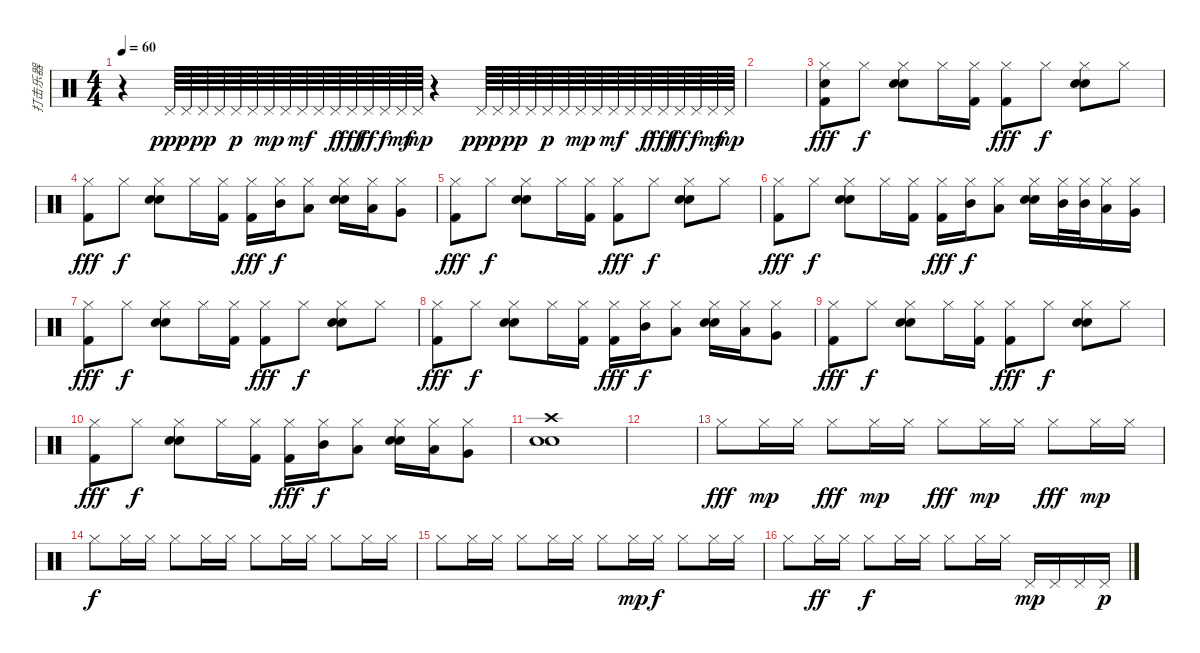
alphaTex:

\track ("打击乐器" "打击乐器") {instrument percussion}
\staff {score}
\articulation defaults
\ts (4 4)
\tempo 60
\clef neutral
\ks c
r.4{dy p} "Pedal Hi-Hat (hit)".64{dy ppp} "Pedal Hi-Hat (hit)".64 "Pedal Hi-Hat (hit)".64{dy pp} "Pedal Hi-Hat (hit)".64 "Pedal Hi-Hat (hit)".64{dy p} "Pedal Hi-Hat (hit)".64 "Pedal Hi-Hat (hit)".64{dy mp} "Pedal Hi-Hat (hit)".64 "Pedal Hi-Hat (hit)".64{dy mf} "Pedal Hi-Hat (hit)".64 "Pedal Hi-Hat (hit)".64{dy f} "Pedal Hi-Hat (hit)".64{dy fff} "Pedal Hi-Hat (hit)".64{dy ff} "Pedal Hi-Hat (hit)".64{dy f} "Pedal Hi-Hat (hit)".64{dy mf} "Pedal Hi-Hat (hit)".64{dy mp} r.4 "Pedal Hi-Hat (hit)".64{dy ppp} "Pedal Hi-Hat (hit)".64 "Pedal Hi-Hat (hit)".64{dy pp} "Pedal Hi-Hat (hit)".64 "Pedal Hi-Hat (hit)".64{dy p} "Pedal Hi-Hat (hit)".64 "Pedal Hi-Hat (hit)".64{dy mp} "Pedal Hi-Hat (hit)".64 "Pedal Hi-Hat (hit)".64{dy mf} "Pedal Hi-Hat (hit)".64 "Pedal Hi-Hat (hit)".64{dy f} "Pedal Hi-Hat (hit)".64{dy fff} "Pedal Hi-Hat (hit)".64{dy ff} "Pedal Hi-Hat (hit)".64{dy f} "Pedal Hi-Hat (hit)".64{dy mf} "Pedal Hi-Hat (hit)".64{dy mp} |
|
("Hi-Hat (closed)" "Kick (hit) 2" "Electric Snare (hit)").8{dy fff} "Hi-Hat (closed)".8{dy f} ("Electric Snare (hit)" "Hand Clap (hit)" "Hi-Hat (closed)").8 "Hi-Hat (closed)".16 ("Kick (hit) 2" "Hi-Hat (closed)").16 ("Kick (hit) 2" "Hi-Hat (closed)").8{dy fff} "Hi-Hat (closed)".8{dy f} ("Electric Snare (hit)" "Hand Clap (hit)" "Hi-Hat (closed)").8 "Hi-Hat (closed)".8 |
("Kick (hit) 2" "Hi-Hat (closed)").8{dy fff} "Hi-Hat (closed)".8{dy f} ("Electric Snare (hit)" "Hand Clap (hit)" "Hi-Hat (closed)").8 "Hi-Hat (closed)".16 ("Kick (hit) 2" "Hi-Hat (closed)").16 ("Kick (hit) 2" "Hi-Hat (closed)").16{dy fff} ("Mid Tom (hit)" "Hi-Hat (closed)").16{dy f} ("Low Tom (hit)" "Hi-Hat (closed)").8 ("Electric Snare (hit)" "Hand Clap (hit)" "Hi-Hat (closed)").16 ("Low Tom (hit)" "Hi-Hat (closed)").16 ("Very Low Tom (hit)" "Hi-Hat (closed)").8 |
("Kick (hit) 2" "Hi-Hat (closed)").8{dy fff} "Hi-Hat (closed)".8{dy f} ("Electric Snare (hit)" "Hand Clap (hit)" "Hi-Hat (closed)").8 "Hi-Hat (closed)".16 ("Kick (hit) 2" "Hi-Hat (closed)").16 ("Kick (hit) 2" "Hi-Hat (closed)").8{dy fff} "Hi-Hat (closed)".8{dy f} ("Electric Snare (hit)" "Hand Clap (hit)" "Hi-Hat (closed)").8 "Hi-Hat (closed)".8 |
("Kick (hit) 2" "Hi-Hat (closed)").8{dy fff} "Hi-Hat (closed)".8{dy f} ("Electric Snare (hit)" "Hand Clap (hit)" "Hi-Hat (closed)").8 "Hi-Hat (closed)".16 ("Kick (hit) 2" "Hi-Hat (closed)").16 ("Kick (hit) 2" "Hi-Hat (closed)").16{dy fff} ("Mid Tom (hit)" "Hi-Hat (closed)").16{dy f} ("Low Tom (hit)" "Hi-Hat (closed)").8 ("Electric Snare (hit)" "Hand Clap (hit)" "Hi-Hat (closed)").16 ("Mid Tom (hit)" "Hi-Hat (closed)").32 ("Mid Tom (hit)" "Hi-Hat (closed)").32 ("Low Tom (hit)" "Hi-Hat (closed)").16 ("Very Low Tom (hit)" "Hi-Hat (closed)").16 |
("Kick (hit) 2" "Hi-Hat (closed)").8{dy fff} "Hi-Hat (closed)".8{dy f} ("Electric Snare (hit)" "Hand Clap (hit)" "Hi-Hat (closed)").8 "Hi-Hat (closed)".16 ("Kick (hit) 2" "Hi-Hat (closed)").16 ("Kick (hit) 2" "Hi-Hat (closed)").8{dy fff} "Hi-Hat (closed)".8{dy f} ("Electric Snare (hit)" "Hand Clap (hit)" "Hi-Hat (closed)").8 "Hi-Hat (closed)".8 |
("Kick (hit) 2" "Hi-Hat (closed)").8{dy fff} "Hi-Hat (closed)".8{dy f} ("Electric Snare (hit)" "Hand Clap (hit)" "Hi-Hat (closed)").8 "Hi-Hat (closed)".16 ("Kick (hit) 2" "Hi-Hat (closed)").16 ("Kick (hit) 2" "Hi-Hat (closed)").16{dy fff} ("Mid Tom (hit)" "Hi-Hat (closed)").16{dy f} ("Low Tom (hit)" "Hi-Hat (closed)").8 ("Electric Snare (hit)" "Hand Clap (hit)" "Hi-Hat (closed)").16 ("Low Tom (hit)" "Hi-Hat (closed)").16 ("Very Low Tom (hit)" "Hi-Hat (closed)").8 |
("Kick (hit) 2" "Hi-Hat (closed)").8{dy fff} "Hi-Hat (closed)".8{dy f} ("Electric Snare (hit)" "Hand Clap (hit)" "Hi-Hat (closed)").8 "Hi-Hat (closed)".16 ("Kick (hit) 2" "Hi-Hat (closed)").16 ("Kick (hit) 2" "Hi-Hat (closed)").8{dy fff} "Hi-Hat (closed)".8{dy f} ("Electric Snare (hit)" "Hand Clap (hit)" "Hi-Hat (closed)").8 "Hi-Hat (closed)".8 |
("Kick (hit) 2" "Hi-Hat (closed)").8{dy fff} "Hi-Hat (closed)".8{dy f} ("Electric Snare (hit)" "Hand Clap (hit)" "Hi-Hat (closed)").8 "Hi-Hat (closed)".16 ("Kick (hit) 2" "Hi-Hat (closed)").16 ("Kick (hit) 2" "Hi-Hat (closed)").16{dy fff} ("Mid Tom (hit)" "Hi-Hat (closed)").16{dy f} ("Low Tom (hit)" "Hi-Hat (closed)").8 ("Electric Snare (hit)" "Hand Clap (hit)" "Hi-Hat (closed)").16 ("Low Tom (hit)" "Hi-Hat (closed)").16 ("Very Low Tom (hit)" "Hi-Hat (closed)").8 |
("Crash high (hit)" "Snare (hit) 2" "Hand Clap (hit)").1 |
|
"Hi-Hat (closed)".8{dy fff volume 7} "Hi-Hat (closed)".16{dy mp} "Hi-Hat (closed)".16 "Hi-Hat (closed)".8{dy fff} "Hi-Hat (closed)".16{dy mp} "Hi-Hat (closed)".16 "Hi-Hat (closed)".8{dy fff} "Hi-Hat (closed)".16{dy mp} "Hi-Hat (closed)".16 "Hi-Hat (closed)".8{dy fff} "Hi-Hat (closed)".16{dy mp} "Hi-Hat (closed)".16 |
"Hi-Hat (closed)".8{dy f} "Hi-Hat (closed)".16 "Hi-Hat (closed)".16 "Hi-Hat (closed)".8 "Hi-Hat (closed)".16 "Hi-Hat (closed)".16 "Hi-Hat (closed)".8 "Hi-Hat (closed)".16 "Hi-Hat (closed)".16 "Hi-Hat (closed)".8 "Hi-Hat (closed)".16 "Hi-Hat (closed)".16 |
"Hi-Hat (closed)".8 "Hi-Hat (closed)".16 "Hi-Hat (closed)".16 "Hi-Hat (closed)".8 "Hi-Hat (closed)".16 "Hi-Hat (closed)".16 "Hi-Hat (closed)".8 "Hi-Hat (closed)".16{dy mp} "Hi-Hat (closed)".16{dy f} "Hi-Hat (closed)".8 "Hi-Hat (closed)".16 "Hi-Hat (closed)".16 |
"Hi-Hat (closed)".8 "Hi-Hat (closed)".16{dy ff} "Hi-Hat (closed)".16 "Hi-Hat (closed)".8{dy f} "Hi-Hat (closed)".16 "Hi-Hat (closed)".16 "Hi-Hat (closed)".8 "Hi-Hat (closed)".16 "Hi-Hat (closed)".16 "Pedal Hi-Hat (hit)".16{dy mp} "Pedal Hi-Hat (hit)".16 "Pedal Hi-Hat (hit)".16 "Pedal Hi-Hat (hit)".16{dy p}
